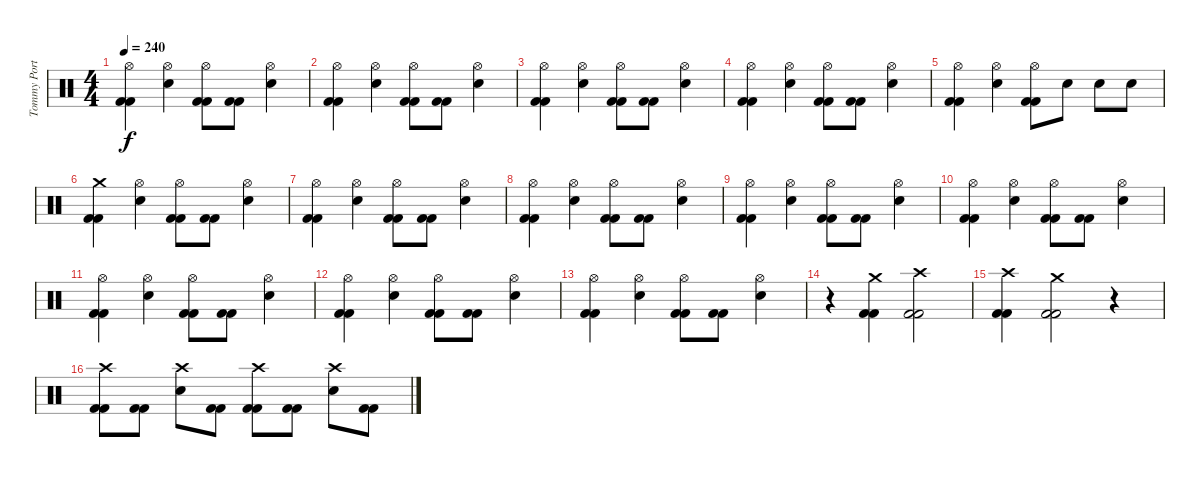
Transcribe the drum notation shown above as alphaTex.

\track ("Tommy Portimo " "Tommy Port") {instrument percussion}
\staff {score}
\articulation defaults
\ts (4 4)
\tempo 240
\clef neutral
\ks c
("Hi-Hat (open)" "Kick (hit) 2" "Kick (hit) 2").4{dy f} ("Hi-Hat (open)" "Electric Snare (hit)").4 ("Hi-Hat (open)" "Kick (hit) 2" "Kick (hit) 2").8 ("Kick (hit) 2" "Kick (hit) 2").8 ("Hi-Hat (open)" "Electric Snare (hit)").4 |
("Hi-Hat (open)" "Kick (hit) 2" "Kick (hit) 2").4 ("Hi-Hat (open)" "Electric Snare (hit)").4 ("Hi-Hat (open)" "Kick (hit) 2" "Kick (hit) 2").8 ("Kick (hit) 2" "Kick (hit) 2").8 ("Hi-Hat (open)" "Electric Snare (hit)").4 |
("Hi-Hat (open)" "Kick (hit) 2" "Kick (hit) 2").4 ("Hi-Hat (open)" "Electric Snare (hit)").4 ("Hi-Hat (open)" "Kick (hit) 2" "Kick (hit) 2").8 ("Kick (hit) 2" "Kick (hit) 2").8 ("Hi-Hat (open)" "Electric Snare (hit)").4 |
("Hi-Hat (open)" "Kick (hit) 2" "Kick (hit) 2").4 ("Hi-Hat (open)" "Electric Snare (hit)").4 ("Hi-Hat (open)" "Kick (hit) 2" "Kick (hit) 2").8 ("Kick (hit) 2" "Kick (hit) 2").8 ("Hi-Hat (open)" "Electric Snare (hit)").4 |
("Hi-Hat (open)" "Kick (hit) 2" "Kick (hit) 2").4 ("Hi-Hat (open)" "Electric Snare (hit)").4 ("Hi-Hat (open)" "Kick (hit) 2" "Kick (hit) 2").8 "Electric Snare (hit)".8 "Electric Snare (hit)".8 "Electric Snare (hit)".8 |
("Crash medium (hit)" "Kick (hit) 2" "Kick (hit) 2").4 ("Hi-Hat (open)" "Electric Snare (hit)").4 ("Hi-Hat (open)" "Kick (hit) 2" "Kick (hit) 2").8 ("Kick (hit) 2" "Kick (hit) 2").8 ("Hi-Hat (open)" "Electric Snare (hit)").4 |
("Hi-Hat (open)" "Kick (hit) 2" "Kick (hit) 2").4 ("Hi-Hat (open)" "Electric Snare (hit)").4 ("Hi-Hat (open)" "Kick (hit) 2" "Kick (hit) 2").8 ("Kick (hit) 2" "Kick (hit) 2").8 ("Hi-Hat (open)" "Electric Snare (hit)").4 |
("Hi-Hat (open)" "Kick (hit) 2" "Kick (hit) 2").4 ("Hi-Hat (open)" "Electric Snare (hit)").4 ("Hi-Hat (open)" "Kick (hit) 2" "Kick (hit) 2").8 ("Kick (hit) 2" "Kick (hit) 2").8 ("Hi-Hat (open)" "Electric Snare (hit)").4 |
("Hi-Hat (open)" "Kick (hit) 2" "Kick (hit) 2").4 ("Hi-Hat (open)" "Electric Snare (hit)").4 ("Hi-Hat (open)" "Kick (hit) 2" "Kick (hit) 2").8 ("Kick (hit) 2" "Kick (hit) 2").8 ("Hi-Hat (open)" "Electric Snare (hit)").4 |
("Hi-Hat (open)" "Kick (hit) 2" "Kick (hit) 2").4 ("Hi-Hat (open)" "Electric Snare (hit)").4 ("Hi-Hat (open)" "Kick (hit) 2" "Kick (hit) 2").8 ("Kick (hit) 2" "Kick (hit) 2").8 ("Hi-Hat (open)" "Electric Snare (hit)").4 |
("Hi-Hat (open)" "Kick (hit) 2" "Kick (hit) 2").4 ("Hi-Hat (open)" "Electric Snare (hit)").4 ("Hi-Hat (open)" "Kick (hit) 2" "Kick (hit) 2").8 ("Kick (hit) 2" "Kick (hit) 2").8 ("Hi-Hat (open)" "Electric Snare (hit)").4 |
("Hi-Hat (open)" "Kick (hit) 2" "Kick (hit) 2").4 ("Hi-Hat (open)" "Electric Snare (hit)").4 ("Hi-Hat (open)" "Kick (hit) 2" "Kick (hit) 2").8 ("Kick (hit) 2" "Kick (hit) 2").8 ("Hi-Hat (open)" "Electric Snare (hit)").4 |
("Hi-Hat (open)" "Kick (hit) 2" "Kick (hit) 2").4 ("Hi-Hat (open)" "Electric Snare (hit)").4 ("Hi-Hat (open)" "Kick (hit) 2" "Kick (hit) 2").8 ("Kick (hit) 2" "Kick (hit) 2").8 ("Hi-Hat (open)" "Electric Snare (hit)").4 |
r.4 ("Crash medium (hit)" "Kick (hit) 2" "Kick (hit) 2").4 ("Crash high (hit)" "Kick (hit) 2" "Kick (hit) 2").2 |
("Crash high (hit)" "Kick (hit) 2" "Kick (hit) 2").4 ("Crash medium (hit)" "Kick (hit) 2" "Kick (hit) 2").2 r.4 |
("Crash high (hit)" "Kick (hit) 2" "Kick (hit) 2").8 ("Kick (hit) 2" "Kick (hit) 2").8 ("Crash high (hit)" "Electric Snare (hit)").8 ("Kick (hit) 2" "Kick (hit) 2").8 ("Crash high (hit)" "Kick (hit) 2" "Kick (hit) 2").8 ("Kick (hit) 2" "Kick (hit) 2").8 ("Crash high (hit)" "Electric Snare (hit)").8 ("Kick (hit) 2" "Kick (hit) 2").8
